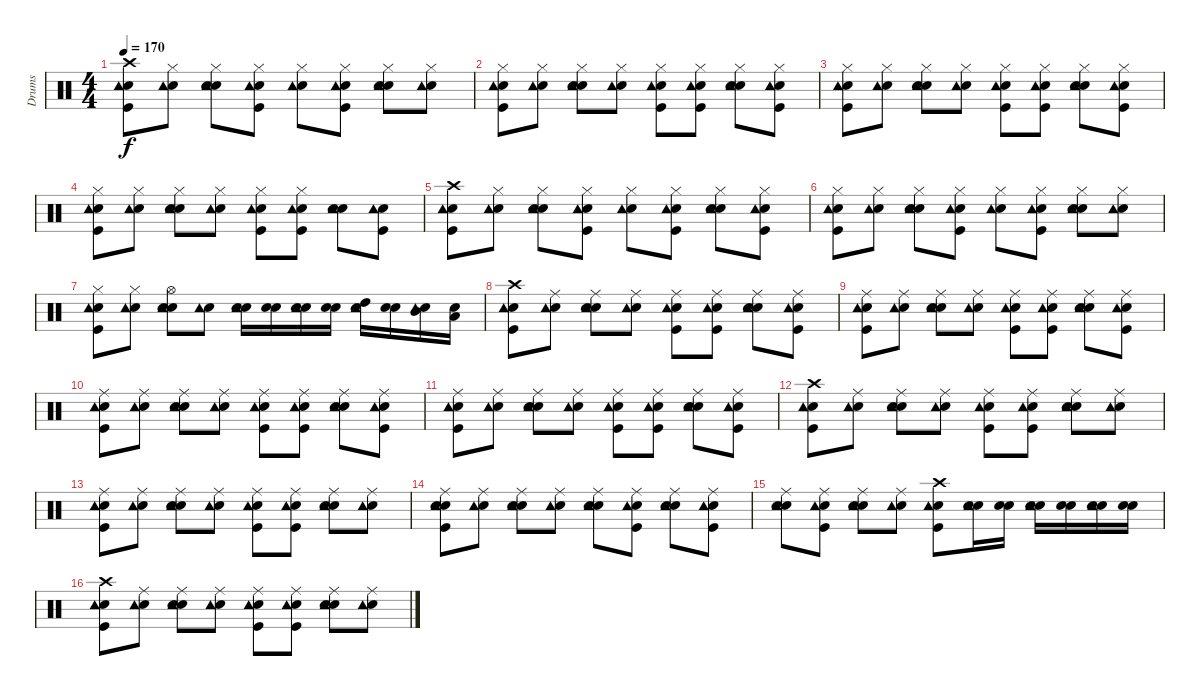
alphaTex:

\track ("Drums" "Drums") {instrument percussion}
\staff {score}
\articulation defaults
\ts (4 4)
\tempo 170
\clef neutral
\ks c
("Snare (hit)" "Kick (hit)" "Crash high (hit)" "Tambourine (hit)").8{dy f} ("Snare (hit)" "Hi-Hat (closed)" "Tambourine (hit)").8 ("Snare (hit)" "Electric Snare (hit)" "Hi-Hat (closed)" "Tambourine (hit)").8 ("Snare (hit)" "Kick (hit)" "Hi-Hat (closed)" "Tambourine (hit)").8 ("Snare (hit)" "Hi-Hat (closed)" "Tambourine (hit)").8 ("Snare (hit)" "Kick (hit)" "Hi-Hat (closed)" "Tambourine (hit)").8 ("Snare (hit)" "Electric Snare (hit)" "Hi-Hat (closed)" "Tambourine (hit)").8 ("Snare (hit)" "Hi-Hat (closed)" "Tambourine (hit)").8 |
("Snare (hit)" "Kick (hit)" "Hi-Hat (closed)" "Tambourine (hit)").8 ("Snare (hit)" "Hi-Hat (closed)" "Tambourine (hit)").8 ("Snare (hit)" "Electric Snare (hit)" "Hi-Hat (closed)" "Tambourine (hit)").8 ("Snare (hit)" "Hi-Hat (closed)" "Tambourine (hit)").8 ("Snare (hit)" "Kick (hit)" "Hi-Hat (closed)" "Tambourine (hit)").8 ("Snare (hit)" "Kick (hit)" "Hi-Hat (closed)" "Tambourine (hit)").8 ("Snare (hit)" "Electric Snare (hit)" "Hi-Hat (closed)" "Tambourine (hit)").8 ("Snare (hit)" "Kick (hit)" "Hi-Hat (closed)" "Tambourine (hit)").8 |
("Snare (hit)" "Kick (hit)" "Hi-Hat (closed)" "Tambourine (hit)").8 ("Snare (hit)" "Hi-Hat (closed)" "Tambourine (hit)").8 ("Snare (hit)" "Electric Snare (hit)" "Hi-Hat (closed)" "Tambourine (hit)").8 ("Snare (hit)" "Hi-Hat (closed)" "Tambourine (hit)").8 ("Snare (hit)" "Kick (hit)" "Hi-Hat (closed)" "Tambourine (hit)").8 ("Snare (hit)" "Kick (hit)" "Hi-Hat (closed)" "Tambourine (hit)").8 ("Snare (hit)" "Electric Snare (hit)" "Hi-Hat (closed)" "Tambourine (hit)").8 ("Snare (hit)" "Kick (hit)" "Hi-Hat (closed)" "Tambourine (hit)").8 |
("Snare (hit)" "Kick (hit)" "Hi-Hat (closed)" "Tambourine (hit)").8 ("Snare (hit)" "Hi-Hat (closed)" "Tambourine (hit)").8 ("Snare (hit)" "Electric Snare (hit)" "Hi-Hat (closed)" "Tambourine (hit)").8 ("Snare (hit)" "Hi-Hat (closed)" "Tambourine (hit)").8 ("Snare (hit)" "Kick (hit)" "Hi-Hat (closed)" "Tambourine (hit)").8 ("Snare (hit)" "Kick (hit)" "Hi-Hat (closed)" "Tambourine (hit)").8 ("Snare (hit)" "Electric Snare (hit)" "Tambourine (hit)").8 ("Snare (hit)" "Kick (hit)" "Tambourine (hit)").8 |
("Snare (hit)" "Kick (hit)" "Crash high (hit)" "Tambourine (hit)").8 ("Snare (hit)" "Hi-Hat (closed)" "Tambourine (hit)").8 ("Snare (hit)" "Electric Snare (hit)" "Hi-Hat (closed)" "Tambourine (hit)").8 ("Snare (hit)" "Kick (hit)" "Hi-Hat (closed)" "Tambourine (hit)").8 ("Snare (hit)" "Hi-Hat (closed)" "Tambourine (hit)").8 ("Snare (hit)" "Kick (hit)" "Hi-Hat (closed)" "Tambourine (hit)").8 ("Snare (hit)" "Electric Snare (hit)" "Hi-Hat (closed)" "Tambourine (hit)").8 ("Snare (hit)" "Kick (hit)" "Hi-Hat (closed)" "Tambourine (hit)").8 |
("Snare (hit)" "Kick (hit)" "Hi-Hat (closed)" "Tambourine (hit)").8 ("Snare (hit)" "Hi-Hat (closed)" "Tambourine (hit)").8 ("Snare (hit)" "Electric Snare (hit)" "Hi-Hat (closed)" "Tambourine (hit)").8 ("Snare (hit)" "Kick (hit)" "Hi-Hat (closed)" "Tambourine (hit)").8 ("Snare (hit)" "Hi-Hat (closed)" "Tambourine (hit)").8 ("Snare (hit)" "Kick (hit)" "Hi-Hat (closed)" "Tambourine (hit)").8 ("Snare (hit)" "Electric Snare (hit)" "Hi-Hat (closed)" "Tambourine (hit)").8 ("Snare (hit)" "Hi-Hat (closed)" "Tambourine (hit)").8 |
("Snare (hit)" "Kick (hit)" "Hi-Hat (closed)" "Tambourine (hit)").8 ("Snare (hit)" "Hi-Hat (closed)" "Tambourine (hit)").8 ("Snare (hit)" "Electric Snare (hit)" "Hi-Hat (open)" "Tambourine (hit)").8 ("Snare (hit)" "Tambourine (hit)").8 ("Snare (hit)" "Electric Snare (hit)" "Tambourine (hit)").16 ("Snare (hit)" "Electric Snare (hit)").16 ("Snare (hit)" "Electric Snare (hit)" "Tambourine (hit)").16 ("Snare (hit)" "Electric Snare (hit)").16 ("Snare (hit)" "High Tom (hit)" "Tambourine (hit)").16 ("Snare (hit)" "Electric Snare (hit)").16 ("Snare (hit)" "Mid Tom (hit)" "Tambourine (hit)").16 ("Snare (hit)" "Low Tom (hit)").16 |
("Snare (hit)" "Kick (hit)" "Tambourine (hit)" "Crash high (hit)").8 ("Snare (hit)" "Tambourine (hit)" "Ride (middle)").8 ("Snare (hit)" "Tambourine (hit)" "Electric Snare (hit)" "Ride (middle)").8 ("Snare (hit)" "Tambourine (hit)" "Ride (middle)").8 ("Snare (hit)" "Kick (hit)" "Tambourine (hit)" "Ride (middle)").8 ("Snare (hit)" "Kick (hit)" "Tambourine (hit)" "Ride (middle)").8 ("Snare (hit)" "Tambourine (hit)" "Electric Snare (hit)" "Ride (middle)").8 ("Snare (hit)" "Kick (hit)" "Tambourine (hit)" "Ride (middle)").8 |
("Snare (hit)" "Kick (hit)" "Tambourine (hit)" "Ride (middle)").8 ("Snare (hit)" "Tambourine (hit)" "Ride (middle)").8 ("Snare (hit)" "Tambourine (hit)" "Electric Snare (hit)" "Ride (middle)").8 ("Snare (hit)" "Tambourine (hit)" "Ride (middle)").8 ("Snare (hit)" "Kick (hit)" "Tambourine (hit)" "Ride (middle)").8 ("Snare (hit)" "Kick (hit)" "Tambourine (hit)" "Ride (middle)").8 ("Snare (hit)" "Tambourine (hit)" "Electric Snare (hit)" "Ride (middle)").8 ("Snare (hit)" "Kick (hit)" "Tambourine (hit)" "Ride (middle)").8 |
("Snare (hit)" "Kick (hit)" "Tambourine (hit)" "Ride (middle)").8 ("Snare (hit)" "Tambourine (hit)" "Ride (middle)").8 ("Snare (hit)" "Tambourine (hit)" "Electric Snare (hit)" "Ride (middle)").8 ("Snare (hit)" "Tambourine (hit)" "Ride (middle)").8 ("Snare (hit)" "Kick (hit)" "Tambourine (hit)" "Ride (middle)").8 ("Snare (hit)" "Kick (hit)" "Tambourine (hit)" "Ride (middle)").8 ("Snare (hit)" "Tambourine (hit)" "Electric Snare (hit)" "Ride (middle)").8 ("Snare (hit)" "Kick (hit)" "Tambourine (hit)" "Ride (middle)").8 |
("Snare (hit)" "Kick (hit)" "Tambourine (hit)" "Ride (middle)").8 ("Snare (hit)" "Tambourine (hit)" "Ride (middle)").8 ("Snare (hit)" "Tambourine (hit)" "Electric Snare (hit)" "Ride (middle)").8 ("Snare (hit)" "Tambourine (hit)" "Ride (middle)").8 ("Snare (hit)" "Kick (hit)" "Tambourine (hit)" "Ride (middle)").8 ("Snare (hit)" "Kick (hit)" "Tambourine (hit)" "Ride (middle)").8 ("Snare (hit)" "Tambourine (hit)" "Electric Snare (hit)" "Ride (middle)").8 ("Snare (hit)" "Kick (hit)" "Tambourine (hit)" "Ride (middle)").8 |
("Snare (hit)" "Kick (hit)" "Tambourine (hit)" "Crash high (hit)").8 ("Snare (hit)" "Tambourine (hit)" "Ride (middle)").8 ("Snare (hit)" "Tambourine (hit)" "Electric Snare (hit)" "Ride (middle)").8 ("Snare (hit)" "Tambourine (hit)" "Ride (middle)").8 ("Snare (hit)" "Kick (hit)" "Tambourine (hit)" "Ride (middle)").8 ("Snare (hit)" "Kick (hit)" "Tambourine (hit)" "Ride (middle)").8 ("Snare (hit)" "Tambourine (hit)" "Electric Snare (hit)" "Ride (middle)").8 ("Snare (hit)" "Tambourine (hit)" "Ride (middle)").8 |
("Snare (hit)" "Kick (hit)" "Tambourine (hit)" "Ride (middle)").8 ("Snare (hit)" "Tambourine (hit)" "Ride (middle)").8 ("Snare (hit)" "Tambourine (hit)" "Electric Snare (hit)" "Ride (middle)").8 ("Snare (hit)" "Tambourine (hit)" "Ride (middle)").8 ("Snare (hit)" "Kick (hit)" "Tambourine (hit)" "Ride (middle)").8 ("Snare (hit)" "Kick (hit)" "Tambourine (hit)" "Ride (middle)").8 ("Snare (hit)" "Tambourine (hit)" "Electric Snare (hit)" "Ride (middle)").8 ("Snare (hit)" "Tambourine (hit)" "Ride (middle)").8 |
("Snare (hit)" "Kick (hit)" "Tambourine (hit)" "Electric Snare (hit)" "Ride (middle)").8 ("Snare (hit)" "Tambourine (hit)" "Ride (middle)").8 ("Snare (hit)" "Electric Snare (hit)" "Ride (middle)" "Tambourine (hit)").8 ("Snare (hit)" "Ride (middle)" "Tambourine (hit)").8 ("Snare (hit)" "Electric Snare (hit)" "Ride (middle)" "Tambourine (hit)").8 ("Snare (hit)" "Kick (hit)" "Tambourine (hit)" "Ride (middle)").8 ("Snare (hit)" "Tambourine (hit)" "Electric Snare (hit)" "Ride (middle)").8 ("Snare (hit)" "Kick (hit)" "Tambourine (hit)" "Ride (middle)").8 |
("Snare (hit)" "Tambourine (hit)" "Electric Snare (hit)" "Ride (middle)").8 ("Snare (hit)" "Kick (hit)" "Tambourine (hit)" "Ride (middle)").8 ("Snare (hit)" "Tambourine (hit)" "Electric Snare (hit)" "Ride (middle)").8 ("Snare (hit)" "Tambourine (hit)" "Ride (middle)").8 ("Snare (hit)" "Kick (hit)" "Tambourine (hit)" "Crash high (hit)").8 ("Snare (hit)" "Tambourine (hit)" "Electric Snare (hit)").16 ("Snare (hit)" "Electric Snare (hit)").16 ("Snare (hit)" "Tambourine (hit)" "Electric Snare (hit)").16 ("Snare (hit)" "Electric Snare (hit)").16 ("Snare (hit)" "Tambourine (hit)" "Electric Snare (hit)").16 ("Snare (hit)" "Electric Snare (hit)").16 |
("Snare (hit)" "Kick (hit)" "Tambourine (hit)" "Crash high (hit)").8 ("Snare (hit)" "Tambourine (hit)" "Ride (middle)").8 ("Snare (hit)" "Tambourine (hit)" "Electric Snare (hit)" "Ride (middle)").8 ("Snare (hit)" "Tambourine (hit)" "Ride (middle)").8 ("Snare (hit)" "Kick (hit)" "Tambourine (hit)" "Ride (middle)").8 ("Snare (hit)" "Kick (hit)" "Tambourine (hit)" "Ride (middle)").8 ("Snare (hit)" "Tambourine (hit)" "Electric Snare (hit)" "Ride (middle)").8 ("Snare (hit)" "Tambourine (hit)" "Ride (middle)").8
